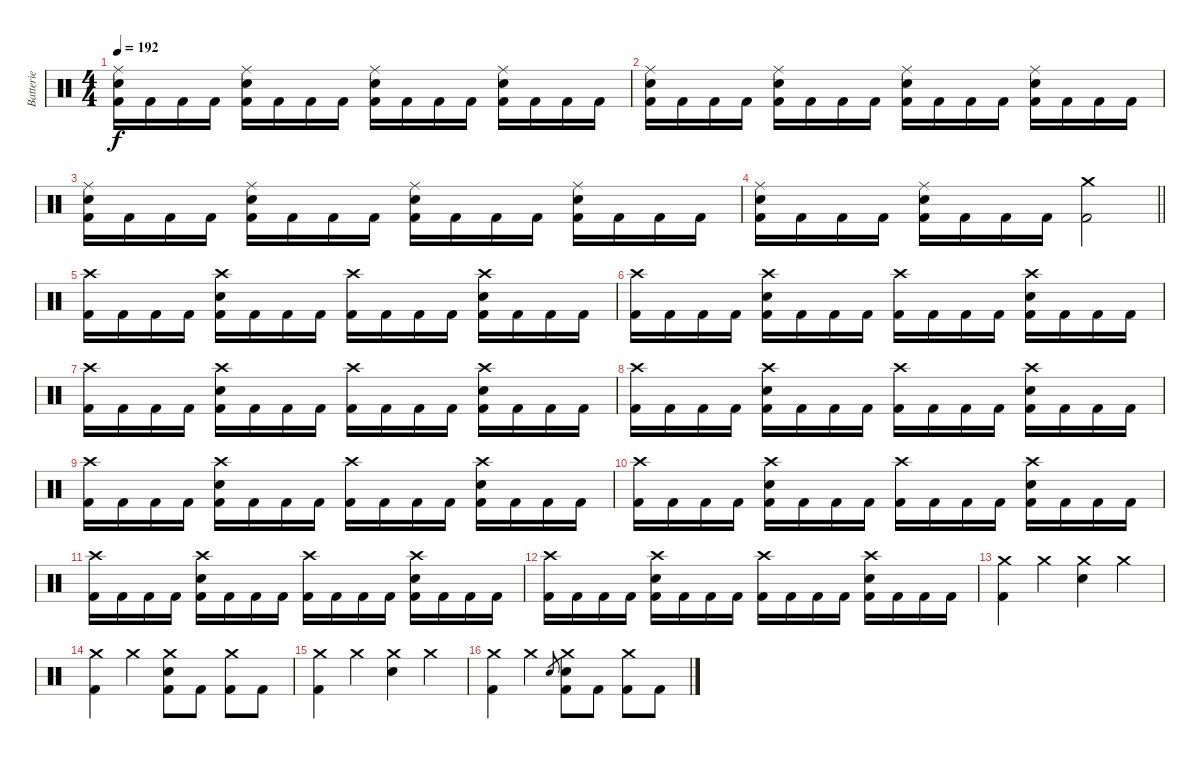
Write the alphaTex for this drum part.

\track ("Batterie" "Batterie") {instrument percussion}
\staff {score}
\articulation defaults
\ts (4 4)
\tempo 192
\clef neutral
\ks c
("Ride (middle)" "Snare (hit) 2" "Kick (hit) 2").16{dy f} "Kick (hit) 2".16 "Kick (hit) 2".16 "Kick (hit) 2".16 ("Ride (middle)" "Snare (hit) 2" "Kick (hit) 2").16 "Kick (hit) 2".16 "Kick (hit) 2".16 "Kick (hit) 2".16 ("Ride (middle)" "Snare (hit) 2" "Kick (hit) 2").16 "Kick (hit) 2".16 "Kick (hit) 2".16 "Kick (hit) 2".16 ("Ride (middle)" "Snare (hit) 2" "Kick (hit) 2").16 "Kick (hit) 2".16 "Kick (hit) 2".16 "Kick (hit) 2".16 |
("Ride (middle)" "Snare (hit) 2" "Kick (hit) 2").16 "Kick (hit) 2".16 "Kick (hit) 2".16 "Kick (hit) 2".16 ("Ride (middle)" "Snare (hit) 2" "Kick (hit) 2").16 "Kick (hit) 2".16 "Kick (hit) 2".16 "Kick (hit) 2".16 ("Ride (middle)" "Snare (hit) 2" "Kick (hit) 2").16 "Kick (hit) 2".16 "Kick (hit) 2".16 "Kick (hit) 2".16 ("Ride (middle)" "Snare (hit) 2" "Kick (hit) 2").16 "Kick (hit) 2".16 "Kick (hit) 2".16 "Kick (hit) 2".16 |
("Ride (middle)" "Snare (hit) 2" "Kick (hit) 2").16 "Kick (hit) 2".16 "Kick (hit) 2".16 "Kick (hit) 2".16 ("Ride (middle)" "Snare (hit) 2" "Kick (hit) 2").16 "Kick (hit) 2".16 "Kick (hit) 2".16 "Kick (hit) 2".16 ("Ride (middle)" "Snare (hit) 2" "Kick (hit) 2").16 "Kick (hit) 2".16 "Kick (hit) 2".16 "Kick (hit) 2".16 ("Ride (middle)" "Snare (hit) 2" "Kick (hit) 2").16 "Kick (hit) 2".16 "Kick (hit) 2".16 "Kick (hit) 2".16 |
\barLineRight lightlight
("Ride (middle)" "Snare (hit) 2" "Kick (hit) 2").16 "Kick (hit) 2".16 "Kick (hit) 2".16 "Kick (hit) 2".16 ("Ride (middle)" "Snare (hit) 2" "Kick (hit) 2").16 "Kick (hit) 2".16 "Kick (hit) 2".16 "Kick (hit) 2".16 ("Crash medium (hit)" "Kick (hit) 2").2 |
\section ("" "")
("Crash high (hit)" "Kick (hit) 2").16 "Kick (hit) 2".16 "Kick (hit) 2".16 "Kick (hit) 2".16 ("Crash high (hit)" "Snare (hit) 2" "Kick (hit) 2").16 "Kick (hit) 2".16 "Kick (hit) 2".16 "Kick (hit) 2".16 ("Crash high (hit)" "Kick (hit) 2").16 "Kick (hit) 2".16 "Kick (hit) 2".16 "Kick (hit) 2".16 ("Crash high (hit)" "Snare (hit) 2" "Kick (hit) 2").16 "Kick (hit) 2".16 "Kick (hit) 2".16 "Kick (hit) 2".16 |
("Crash high (hit)" "Kick (hit) 2").16 "Kick (hit) 2".16 "Kick (hit) 2".16 "Kick (hit) 2".16 ("Crash high (hit)" "Snare (hit) 2" "Kick (hit) 2").16 "Kick (hit) 2".16 "Kick (hit) 2".16 "Kick (hit) 2".16 ("Crash high (hit)" "Kick (hit) 2").16 "Kick (hit) 2".16 "Kick (hit) 2".16 "Kick (hit) 2".16 ("Crash high (hit)" "Snare (hit) 2" "Kick (hit) 2").16 "Kick (hit) 2".16 "Kick (hit) 2".16 "Kick (hit) 2".16 |
("Crash high (hit)" "Kick (hit) 2").16 "Kick (hit) 2".16 "Kick (hit) 2".16 "Kick (hit) 2".16 ("Crash high (hit)" "Snare (hit) 2" "Kick (hit) 2").16 "Kick (hit) 2".16 "Kick (hit) 2".16 "Kick (hit) 2".16 ("Crash high (hit)" "Kick (hit) 2").16 "Kick (hit) 2".16 "Kick (hit) 2".16 "Kick (hit) 2".16 ("Crash high (hit)" "Snare (hit) 2" "Kick (hit) 2").16 "Kick (hit) 2".16 "Kick (hit) 2".16 "Kick (hit) 2".16 |
("Crash high (hit)" "Kick (hit) 2").16 "Kick (hit) 2".16 "Kick (hit) 2".16 "Kick (hit) 2".16 ("Crash high (hit)" "Snare (hit) 2" "Kick (hit) 2").16 "Kick (hit) 2".16 "Kick (hit) 2".16 "Kick (hit) 2".16 ("Crash high (hit)" "Kick (hit) 2").16 "Kick (hit) 2".16 "Kick (hit) 2".16 "Kick (hit) 2".16 ("Crash high (hit)" "Snare (hit) 2" "Kick (hit) 2").16 "Kick (hit) 2".16 "Kick (hit) 2".16 "Kick (hit) 2".16 |
("Crash high (hit)" "Kick (hit) 2").16 "Kick (hit) 2".16 "Kick (hit) 2".16 "Kick (hit) 2".16 ("Crash high (hit)" "Snare (hit) 2" "Kick (hit) 2").16 "Kick (hit) 2".16 "Kick (hit) 2".16 "Kick (hit) 2".16 ("Crash high (hit)" "Kick (hit) 2").16 "Kick (hit) 2".16 "Kick (hit) 2".16 "Kick (hit) 2".16 ("Crash high (hit)" "Snare (hit) 2" "Kick (hit) 2").16 "Kick (hit) 2".16 "Kick (hit) 2".16 "Kick (hit) 2".16 |
("Crash high (hit)" "Kick (hit) 2").16 "Kick (hit) 2".16 "Kick (hit) 2".16 "Kick (hit) 2".16 ("Crash high (hit)" "Snare (hit) 2" "Kick (hit) 2").16 "Kick (hit) 2".16 "Kick (hit) 2".16 "Kick (hit) 2".16 ("Crash high (hit)" "Kick (hit) 2").16 "Kick (hit) 2".16 "Kick (hit) 2".16 "Kick (hit) 2".16 ("Crash high (hit)" "Snare (hit) 2" "Kick (hit) 2").16 "Kick (hit) 2".16 "Kick (hit) 2".16 "Kick (hit) 2".16 |
("Crash high (hit)" "Kick (hit) 2").16 "Kick (hit) 2".16 "Kick (hit) 2".16 "Kick (hit) 2".16 ("Crash high (hit)" "Snare (hit) 2" "Kick (hit) 2").16 "Kick (hit) 2".16 "Kick (hit) 2".16 "Kick (hit) 2".16 ("Crash high (hit)" "Kick (hit) 2").16 "Kick (hit) 2".16 "Kick (hit) 2".16 "Kick (hit) 2".16 ("Crash high (hit)" "Snare (hit) 2" "Kick (hit) 2").16 "Kick (hit) 2".16 "Kick (hit) 2".16 "Kick (hit) 2".16 |
("Crash high (hit)" "Kick (hit) 2").16 "Kick (hit) 2".16 "Kick (hit) 2".16 "Kick (hit) 2".16 ("Crash high (hit)" "Snare (hit) 2" "Kick (hit) 2").16 "Kick (hit) 2".16 "Kick (hit) 2".16 "Kick (hit) 2".16 ("Crash high (hit)" "Kick (hit) 2").16 "Kick (hit) 2".16 "Kick (hit) 2".16 "Kick (hit) 2".16 ("Crash high (hit)" "Snare (hit) 2" "Kick (hit) 2").16 "Kick (hit) 2".16 "Kick (hit) 2".16 "Kick (hit) 2".16 |
("Crash medium (hit)" "Kick (hit) 2").4 "Crash medium (hit)".4 ("Crash medium (hit)" "Snare (hit) 2").4 "Crash medium (hit)".4 |
("Crash medium (hit)" "Kick (hit) 2").4 "Crash medium (hit)".4 ("Crash medium (hit)" "Snare (hit) 2" "Kick (hit) 2").8 "Kick (hit) 2".8 ("Crash medium (hit)" "Kick (hit) 2").8 "Kick (hit) 2".8 |
("Crash medium (hit)" "Kick (hit) 2").4 "Crash medium (hit)".4 ("Crash medium (hit)" "Snare (hit) 2").4 "Crash medium (hit)".4 |
("Crash medium (hit)" "Kick (hit) 2").4 "Crash medium (hit)".4 "Snare (hit) 2".8{gr} ("Crash medium (hit)" "Snare (hit) 2" "Kick (hit) 2").8 "Kick (hit) 2".8 ("Crash medium (hit)" "Kick (hit) 2").8 "Kick (hit) 2".8
